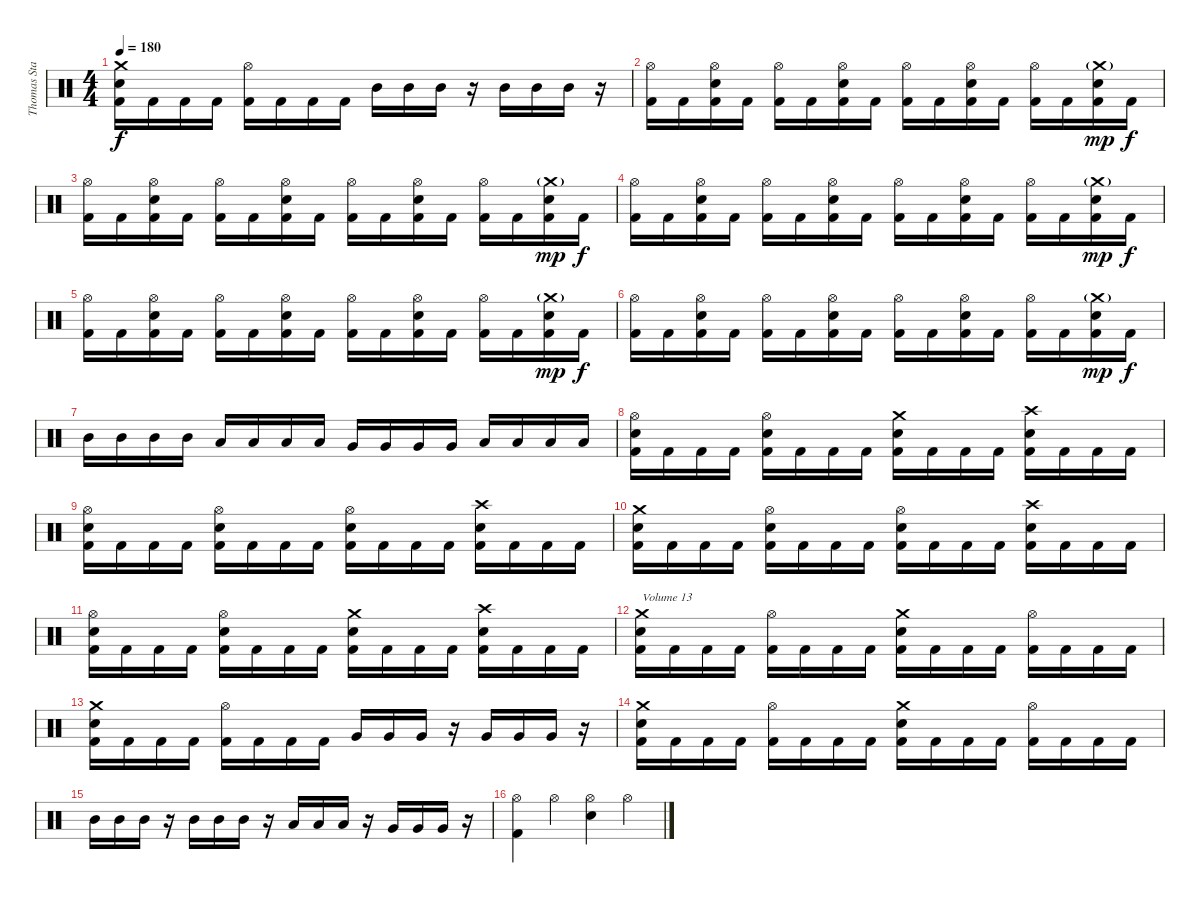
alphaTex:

\track ("Thomas Stauch" "Thomas Sta") {instrument percussion}
\staff {score}
\articulation defaults
\ts (4 4)
\tempo 180
\clef neutral
\ks c
("Crash medium (hit)" "Electric Snare (hit)" "Kick (hit) 2").16{dy f} "Kick (hit) 2".16 "Kick (hit) 2".16 "Kick (hit) 2".16 ("Hi-Hat (open)" "Kick (hit) 2").16 "Kick (hit) 2".16 "Kick (hit) 2".16 "Kick (hit) 2".16 "Mid Tom (hit)".16 "Mid Tom (hit)".16 "Mid Tom (hit)".16 r.16 "Mid Tom (hit)".16 "Mid Tom (hit)".16 "Mid Tom (hit)".16 r.16 |
("Hi-Hat (open)" "Kick (hit) 2").16 "Kick (hit) 2".16 ("Hi-Hat (open)" "Electric Snare (hit)" "Kick (hit) 2").16 "Kick (hit) 2".16 ("Hi-Hat (open)" "Kick (hit) 2").16 "Kick (hit) 2".16 ("Hi-Hat (open)" "Electric Snare (hit)" "Kick (hit) 2").16 "Kick (hit) 2".16 ("Hi-Hat (open)" "Kick (hit) 2").16 "Kick (hit) 2".16 ("Hi-Hat (open)" "Electric Snare (hit)" "Kick (hit) 2").16 "Kick (hit) 2".16 ("Hi-Hat (open)" "Kick (hit) 2").16 "Kick (hit) 2".16 ("Crash medium (hit)"{g} "Electric Snare (hit)" "Kick (hit) 2").16{dy mp} "Kick (hit) 2".16{dy f} |
("Hi-Hat (open)" "Kick (hit) 2").16 "Kick (hit) 2".16 ("Hi-Hat (open)" "Electric Snare (hit)" "Kick (hit) 2").16 "Kick (hit) 2".16 ("Hi-Hat (open)" "Kick (hit) 2").16 "Kick (hit) 2".16 ("Hi-Hat (open)" "Electric Snare (hit)" "Kick (hit) 2").16 "Kick (hit) 2".16 ("Hi-Hat (open)" "Kick (hit) 2").16 "Kick (hit) 2".16 ("Hi-Hat (open)" "Electric Snare (hit)" "Kick (hit) 2").16 "Kick (hit) 2".16 ("Hi-Hat (open)" "Kick (hit) 2").16 "Kick (hit) 2".16 ("Crash medium (hit)"{g} "Electric Snare (hit)" "Kick (hit) 2").16{dy mp} "Kick (hit) 2".16{dy f} |
("Hi-Hat (open)" "Kick (hit) 2").16 "Kick (hit) 2".16 ("Hi-Hat (open)" "Electric Snare (hit)" "Kick (hit) 2").16 "Kick (hit) 2".16 ("Hi-Hat (open)" "Kick (hit) 2").16 "Kick (hit) 2".16 ("Hi-Hat (open)" "Electric Snare (hit)" "Kick (hit) 2").16 "Kick (hit) 2".16 ("Hi-Hat (open)" "Kick (hit) 2").16 "Kick (hit) 2".16 ("Hi-Hat (open)" "Electric Snare (hit)" "Kick (hit) 2").16 "Kick (hit) 2".16 ("Hi-Hat (open)" "Kick (hit) 2").16 "Kick (hit) 2".16 ("Crash medium (hit)"{g} "Electric Snare (hit)" "Kick (hit) 2").16{dy mp} "Kick (hit) 2".16{dy f} |
("Hi-Hat (open)" "Kick (hit) 2").16 "Kick (hit) 2".16 ("Hi-Hat (open)" "Electric Snare (hit)" "Kick (hit) 2").16 "Kick (hit) 2".16 ("Hi-Hat (open)" "Kick (hit) 2").16 "Kick (hit) 2".16 ("Hi-Hat (open)" "Electric Snare (hit)" "Kick (hit) 2").16 "Kick (hit) 2".16 ("Hi-Hat (open)" "Kick (hit) 2").16 "Kick (hit) 2".16 ("Hi-Hat (open)" "Electric Snare (hit)" "Kick (hit) 2").16 "Kick (hit) 2".16 ("Hi-Hat (open)" "Kick (hit) 2").16 "Kick (hit) 2".16 ("Crash medium (hit)"{g} "Electric Snare (hit)" "Kick (hit) 2").16{dy mp} "Kick (hit) 2".16{dy f} |
("Hi-Hat (open)" "Kick (hit) 2").16 "Kick (hit) 2".16 ("Hi-Hat (open)" "Electric Snare (hit)" "Kick (hit) 2").16 "Kick (hit) 2".16 ("Hi-Hat (open)" "Kick (hit) 2").16 "Kick (hit) 2".16 ("Hi-Hat (open)" "Electric Snare (hit)" "Kick (hit) 2").16 "Kick (hit) 2".16 ("Hi-Hat (open)" "Kick (hit) 2").16 "Kick (hit) 2".16 ("Hi-Hat (open)" "Electric Snare (hit)" "Kick (hit) 2").16 "Kick (hit) 2".16 ("Hi-Hat (open)" "Kick (hit) 2").16 "Kick (hit) 2".16 ("Crash medium (hit)"{g} "Electric Snare (hit)" "Kick (hit) 2").16{dy mp} "Kick (hit) 2".16{dy f} |
"Mid Tom (hit)".16 "Mid Tom (hit)".16 "Mid Tom (hit)".16 "Mid Tom (hit)".16 "Low Tom (hit)".16 "Low Tom (hit)".16 "Low Tom (hit)".16 "Low Tom (hit)".16 "Very Low Tom (hit)".16 "Very Low Tom (hit)".16 "Very Low Tom (hit)".16 "Very Low Tom (hit)".16 "Low Floor Tom (hit)".16 "Low Floor Tom (hit)".16 "Low Floor Tom (hit)".16 "Low Floor Tom (hit)".16 |
("Hi-Hat (open)" "Electric Snare (hit)" "Kick (hit) 2").16 "Kick (hit) 2".16 "Kick (hit) 2".16 "Kick (hit) 2".16 ("Hi-Hat (open)" "Electric Snare (hit)" "Kick (hit) 2").16 "Kick (hit) 2".16 "Kick (hit) 2".16 "Kick (hit) 2".16 ("Crash medium (hit)" "Electric Snare (hit)" "Kick (hit) 2").16 "Kick (hit) 2".16 "Kick (hit) 2".16 "Kick (hit) 2".16 ("Crash high (hit)" "Electric Snare (hit)" "Kick (hit) 2").16 "Kick (hit) 2".16 "Kick (hit) 2".16 "Kick (hit) 2".16 |
("Hi-Hat (open)" "Electric Snare (hit)" "Kick (hit) 2").16 "Kick (hit) 2".16 "Kick (hit) 2".16 "Kick (hit) 2".16 ("Hi-Hat (open)" "Electric Snare (hit)" "Kick (hit) 2").16 "Kick (hit) 2".16 "Kick (hit) 2".16 "Kick (hit) 2".16 ("Hi-Hat (open)" "Electric Snare (hit)" "Kick (hit) 2").16 "Kick (hit) 2".16 "Kick (hit) 2".16 "Kick (hit) 2".16 ("Crash high (hit)" "Electric Snare (hit)" "Kick (hit) 2").16 "Kick (hit) 2".16 "Kick (hit) 2".16 "Kick (hit) 2".16 |
("Crash medium (hit)" "Electric Snare (hit)" "Kick (hit) 2").16 "Kick (hit) 2".16 "Kick (hit) 2".16 "Kick (hit) 2".16 ("Hi-Hat (open)" "Electric Snare (hit)" "Kick (hit) 2").16 "Kick (hit) 2".16 "Kick (hit) 2".16 "Kick (hit) 2".16 ("Hi-Hat (open)" "Electric Snare (hit)" "Kick (hit) 2").16 "Kick (hit) 2".16 "Kick (hit) 2".16 "Kick (hit) 2".16 ("Crash high (hit)" "Electric Snare (hit)" "Kick (hit) 2").16 "Kick (hit) 2".16 "Kick (hit) 2".16 "Kick (hit) 2".16 |
("Hi-Hat (open)" "Electric Snare (hit)" "Kick (hit) 2").16 "Kick (hit) 2".16 "Kick (hit) 2".16 "Kick (hit) 2".16 ("Hi-Hat (open)" "Electric Snare (hit)" "Kick (hit) 2").16 "Kick (hit) 2".16 "Kick (hit) 2".16 "Kick (hit) 2".16 ("Crash medium (hit)" "Electric Snare (hit)" "Kick (hit) 2").16 "Kick (hit) 2".16 "Kick (hit) 2".16 "Kick (hit) 2".16 ("Crash high (hit)" "Electric Snare (hit)" "Kick (hit) 2").16 "Kick (hit) 2".16 "Kick (hit) 2".16 "Kick (hit) 2".16 |
("Crash medium (hit)" "Electric Snare (hit)" "Kick (hit) 2").16{txt "Volume 13" volume 13} "Kick (hit) 2".16 "Kick (hit) 2".16 "Kick (hit) 2".16 ("Hi-Hat (open)" "Kick (hit) 2").16 "Kick (hit) 2".16 "Kick (hit) 2".16 "Kick (hit) 2".16 ("Crash medium (hit)" "Electric Snare (hit)" "Kick (hit) 2").16 "Kick (hit) 2".16 "Kick (hit) 2".16 "Kick (hit) 2".16 ("Hi-Hat (open)" "Kick (hit) 2").16 "Kick (hit) 2".16 "Kick (hit) 2".16 "Kick (hit) 2".16 |
("Crash medium (hit)" "Electric Snare (hit)" "Kick (hit) 2").16 "Kick (hit) 2".16 "Kick (hit) 2".16 "Kick (hit) 2".16 ("Hi-Hat (open)" "Kick (hit) 2").16 "Kick (hit) 2".16 "Kick (hit) 2".16 "Kick (hit) 2".16 "Very Low Tom (hit)".16 "Very Low Tom (hit)".16 "Very Low Tom (hit)".16 r.16 "Very Low Tom (hit)".16 "Very Low Tom (hit)".16 "Very Low Tom (hit)".16 r.16 |
("Crash medium (hit)" "Electric Snare (hit)" "Kick (hit) 2").16 "Kick (hit) 2".16 "Kick (hit) 2".16 "Kick (hit) 2".16 ("Hi-Hat (open)" "Kick (hit) 2").16 "Kick (hit) 2".16 "Kick (hit) 2".16 "Kick (hit) 2".16 ("Crash medium (hit)" "Electric Snare (hit)" "Kick (hit) 2").16 "Kick (hit) 2".16 "Kick (hit) 2".16 "Kick (hit) 2".16 ("Hi-Hat (open)" "Kick (hit) 2").16 "Kick (hit) 2".16 "Kick (hit) 2".16 "Kick (hit) 2".16 |
"Mid Tom (hit)".16 "Mid Tom (hit)".16 "Mid Tom (hit)".16 r.16 "Mid Tom (hit)".16 "Mid Tom (hit)".16 "Mid Tom (hit)".16 r.16 "Low Tom (hit)".16 "Low Tom (hit)".16 "Low Tom (hit)".16 r.16 "Very Low Tom (hit)".16 "Very Low Tom (hit)".16 "Very Low Tom (hit)".16 r.16 |
("Hi-Hat (open)" "Kick (hit) 2").4 "Hi-Hat (open)".4 ("Hi-Hat (open)" "Electric Snare (hit)").4 "Hi-Hat (open)".4
